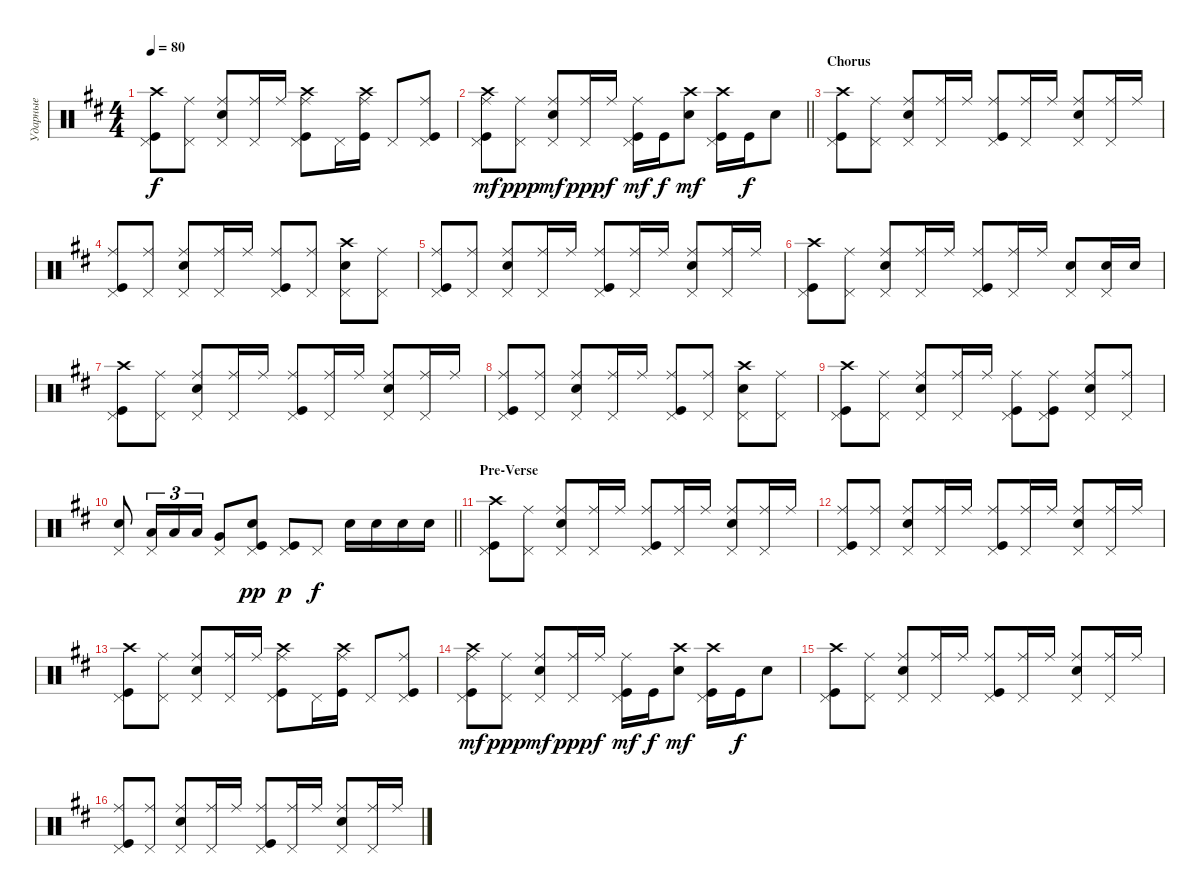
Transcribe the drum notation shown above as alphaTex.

\track ("Ударные" "Ударные") {instrument percussion}
\staff {score}
\articulation defaults
\ts (4 4)
\tempo 80
\clef neutral
\ks bminor
("Crash high (hit)" "Kick (hit)" "Pedal Hi-Hat (hit)").8{dy f} ("Ride (middle)" "Pedal Hi-Hat (hit)").8 ("Snare (hit) 2" "Ride (middle)" "Pedal Hi-Hat (hit)").8 ("Ride (middle)" "Pedal Hi-Hat (hit)").16 "Ride (middle)".16 ("Kick (hit)" "Crash high (hit)" "Pedal Hi-Hat (hit)" "Ride (middle)").8 "Pedal Hi-Hat (hit)".16 ("Kick (hit)" "Crash high (hit)" "Ride (middle)").16 "Pedal Hi-Hat (hit)".8 ("Kick (hit)" "Ride (middle)" "Pedal Hi-Hat (hit)").8 |
\barLineRight lightlight
("Kick (hit)" "Crash high (hit)" "Pedal Hi-Hat (hit)" "Ride (middle)").8{dy mf} ("Ride (middle)" "Pedal Hi-Hat (hit)").8{dy ppp} ("Pedal Hi-Hat (hit)" "Snare (hit) 2" "Ride (middle)").8{dy mf} ("Ride (middle)" "Pedal Hi-Hat (hit)").16{dy ppp} "Ride (middle)".16{dy f} ("Kick (hit)" "Pedal Hi-Hat (hit)" "Ride (middle)").16{dy mf} "Kick (hit)".16{dy f} ("Snare (hit) 2" "Crash high (hit)").8{dy mf} ("Kick (hit)" "Pedal Hi-Hat (hit)" "Crash high (hit)").16 "Kick (hit)".16{dy f} "Snare (hit) 2".8 |
\section ("" "Chorus")
("Crash high (hit)" "Kick (hit)" "Pedal Hi-Hat (hit)").8 ("Ride (middle)" "Pedal Hi-Hat (hit)").8 ("Snare (hit) 2" "Ride (middle)" "Pedal Hi-Hat (hit)").8 ("Ride (middle)" "Pedal Hi-Hat (hit)").16 "Ride (middle)".16 ("Kick (hit)" "Ride (middle)" "Pedal Hi-Hat (hit)").8 ("Ride (middle)" "Pedal Hi-Hat (hit)").16 "Ride (middle)".16 ("Snare (hit) 2" "Ride (middle)" "Pedal Hi-Hat (hit)").8 ("Ride (middle)" "Pedal Hi-Hat (hit)").16 "Ride (middle)".16 |
("Ride (middle)" "Kick (hit)" "Pedal Hi-Hat (hit)").8 ("Ride (middle)" "Pedal Hi-Hat (hit)").8 ("Snare (hit) 2" "Ride (middle)" "Pedal Hi-Hat (hit)").8 ("Ride (middle)" "Pedal Hi-Hat (hit)").16 "Ride (middle)".16 ("Kick (hit)" "Ride (middle)" "Pedal Hi-Hat (hit)").8 ("Ride (middle)" "Pedal Hi-Hat (hit)").8 ("Snare (hit) 2" "Crash high (hit)" "Pedal Hi-Hat (hit)").8 ("Ride (middle)" "Pedal Hi-Hat (hit)").8 |
("Ride (middle)" "Kick (hit)" "Pedal Hi-Hat (hit)").8 ("Ride (middle)" "Pedal Hi-Hat (hit)").8 ("Snare (hit) 2" "Ride (middle)" "Pedal Hi-Hat (hit)").8 ("Ride (middle)" "Pedal Hi-Hat (hit)").16 "Ride (middle)".16 ("Kick (hit)" "Ride (middle)" "Pedal Hi-Hat (hit)").8 ("Ride (middle)" "Pedal Hi-Hat (hit)").16 "Ride (middle)".16 ("Snare (hit) 2" "Ride (middle)" "Pedal Hi-Hat (hit)").8 ("Ride (middle)" "Pedal Hi-Hat (hit)").16 "Ride (middle)".16 |
("Crash high (hit)" "Kick (hit)" "Pedal Hi-Hat (hit)").8 ("Ride (middle)" "Pedal Hi-Hat (hit)").8 ("Snare (hit) 2" "Ride (middle)" "Pedal Hi-Hat (hit)").8 ("Ride (middle)" "Pedal Hi-Hat (hit)").16 "Ride (middle)".16 ("Kick (hit)" "Ride (middle)" "Pedal Hi-Hat (hit)").8 ("Ride (middle)" "Pedal Hi-Hat (hit)").16 "Ride (middle)".16 ("Snare (hit) 2" "Pedal Hi-Hat (hit)").8 ("Snare (hit) 2" "Pedal Hi-Hat (hit)").16 "Snare (hit) 2".16 |
("Crash high (hit)" "Kick (hit)" "Pedal Hi-Hat (hit)").8 ("Ride (middle)" "Pedal Hi-Hat (hit)").8 ("Snare (hit) 2" "Ride (middle)" "Pedal Hi-Hat (hit)").8 ("Ride (middle)" "Pedal Hi-Hat (hit)").16 "Ride (middle)".16 ("Kick (hit)" "Ride (middle)" "Pedal Hi-Hat (hit)").8 ("Ride (middle)" "Pedal Hi-Hat (hit)").16 "Ride (middle)".16 ("Snare (hit) 2" "Ride (middle)" "Pedal Hi-Hat (hit)").8 ("Ride (middle)" "Pedal Hi-Hat (hit)").16 "Ride (middle)".16 |
("Ride (middle)" "Kick (hit)" "Pedal Hi-Hat (hit)").8 ("Ride (middle)" "Pedal Hi-Hat (hit)").8 ("Snare (hit) 2" "Ride (middle)" "Pedal Hi-Hat (hit)").8 ("Ride (middle)" "Pedal Hi-Hat (hit)").16 "Ride (middle)".16 ("Kick (hit)" "Ride (middle)" "Pedal Hi-Hat (hit)").8 ("Ride (middle)" "Pedal Hi-Hat (hit)").8 ("Snare (hit) 2" "Crash high (hit)" "Pedal Hi-Hat (hit)").8 ("Ride (middle)" "Pedal Hi-Hat (hit)").8 |
("Crash high (hit)" "Kick (hit)" "Pedal Hi-Hat (hit)").8 ("Ride (middle)" "Pedal Hi-Hat (hit)").8 ("Snare (hit) 2" "Ride (middle)" "Pedal Hi-Hat (hit)").8 ("Ride (middle)" "Pedal Hi-Hat (hit)").16 "Ride (middle)".16 ("Kick (hit)" "Ride (middle)" "Pedal Hi-Hat (hit)").8 ("Ride (middle)" "Pedal Hi-Hat (hit)" "Kick (hit)").8 ("Snare (hit) 2" "Ride (middle)" "Pedal Hi-Hat (hit)").8 ("Ride (middle)" "Pedal Hi-Hat (hit)").8 |
\barLineRight lightlight
("Snare (hit) 2" "Pedal Hi-Hat (hit)").8 ("Low Tom (hit)" "Pedal Hi-Hat (hit)").16{tu (3 2)} "Low Tom (hit)".16{tu (3 2)} "Low Tom (hit)".16{tu (3 2)} ("Very Low Tom (hit)" "Pedal Hi-Hat (hit)").8 ("Kick (hit)" "Snare (hit) 2" "Pedal Hi-Hat (hit)").8{dy pp} ("Kick (hit)" "Pedal Hi-Hat (hit)").8{dy p} "Pedal Hi-Hat (hit)".8{dy f} "Snare (hit) 2".16 "Snare (hit) 2".16 "Snare (hit) 2".16 "Snare (hit) 2".16 |
\section ("" "Pre-Verse")
("Crash high (hit)" "Kick (hit)" "Pedal Hi-Hat (hit)").8 ("Ride (middle)" "Pedal Hi-Hat (hit)").8 ("Snare (hit) 2" "Ride (middle)" "Pedal Hi-Hat (hit)").8 ("Ride (middle)" "Pedal Hi-Hat (hit)").16 "Ride (middle)".16 ("Kick (hit)" "Ride (middle)" "Pedal Hi-Hat (hit)").8 ("Ride (middle)" "Pedal Hi-Hat (hit)").16 "Ride (middle)".16 ("Snare (hit) 2" "Ride (middle)" "Pedal Hi-Hat (hit)").8 ("Ride (middle)" "Pedal Hi-Hat (hit)").16 "Ride (middle)".16 |
("Ride (middle)" "Kick (hit)" "Pedal Hi-Hat (hit)").8 ("Ride (middle)" "Pedal Hi-Hat (hit)").8 ("Snare (hit) 2" "Ride (middle)" "Pedal Hi-Hat (hit)").8 ("Ride (middle)" "Pedal Hi-Hat (hit)").16 "Ride (middle)".16 ("Kick (hit)" "Ride (middle)" "Pedal Hi-Hat (hit)").8 ("Ride (middle)" "Pedal Hi-Hat (hit)").16 "Ride (middle)".16 ("Snare (hit) 2" "Ride (middle)" "Pedal Hi-Hat (hit)").8 ("Ride (middle)" "Pedal Hi-Hat (hit)").16 "Ride (middle)".16 |
("Crash high (hit)" "Kick (hit)" "Pedal Hi-Hat (hit)").8 ("Ride (middle)" "Pedal Hi-Hat (hit)").8 ("Snare (hit) 2" "Ride (middle)" "Pedal Hi-Hat (hit)").8 ("Ride (middle)" "Pedal Hi-Hat (hit)").16 "Ride (middle)".16 ("Kick (hit)" "Crash high (hit)" "Pedal Hi-Hat (hit)" "Ride (middle)").8 "Pedal Hi-Hat (hit)".16 ("Kick (hit)" "Crash high (hit)" "Ride (middle)").16 "Pedal Hi-Hat (hit)".8 ("Kick (hit)" "Ride (middle)" "Pedal Hi-Hat (hit)").8 |
("Kick (hit)" "Crash high (hit)" "Pedal Hi-Hat (hit)" "Ride (middle)").8{dy mf} ("Ride (middle)" "Pedal Hi-Hat (hit)").8{dy ppp} ("Pedal Hi-Hat (hit)" "Snare (hit) 2" "Ride (middle)").8{dy mf} ("Ride (middle)" "Pedal Hi-Hat (hit)").16{dy ppp} "Ride (middle)".16{dy f} ("Kick (hit)" "Pedal Hi-Hat (hit)" "Ride (middle)").16{dy mf} "Kick (hit)".16{dy f} ("Snare (hit) 2" "Crash high (hit)").8{dy mf} ("Kick (hit)" "Pedal Hi-Hat (hit)" "Crash high (hit)").16 "Kick (hit)".16{dy f} "Snare (hit) 2".8 |
("Crash high (hit)" "Kick (hit)" "Pedal Hi-Hat (hit)").8 ("Ride (middle)" "Pedal Hi-Hat (hit)").8 ("Snare (hit) 2" "Ride (middle)" "Pedal Hi-Hat (hit)").8 ("Ride (middle)" "Pedal Hi-Hat (hit)").16 "Ride (middle)".16 ("Kick (hit)" "Ride (middle)" "Pedal Hi-Hat (hit)").8 ("Ride (middle)" "Pedal Hi-Hat (hit)").16 "Ride (middle)".16 ("Snare (hit) 2" "Ride (middle)" "Pedal Hi-Hat (hit)").8 ("Ride (middle)" "Pedal Hi-Hat (hit)").16 "Ride (middle)".16 |
("Ride (middle)" "Kick (hit)" "Pedal Hi-Hat (hit)").8 ("Ride (middle)" "Pedal Hi-Hat (hit)").8 ("Snare (hit) 2" "Ride (middle)" "Pedal Hi-Hat (hit)").8 ("Ride (middle)" "Pedal Hi-Hat (hit)").16 "Ride (middle)".16 ("Kick (hit)" "Ride (middle)" "Pedal Hi-Hat (hit)").8 ("Ride (middle)" "Pedal Hi-Hat (hit)").16 "Ride (middle)".16 ("Snare (hit) 2" "Ride (middle)" "Pedal Hi-Hat (hit)").8 ("Ride (middle)" "Pedal Hi-Hat (hit)").16 "Ride (middle)".16
